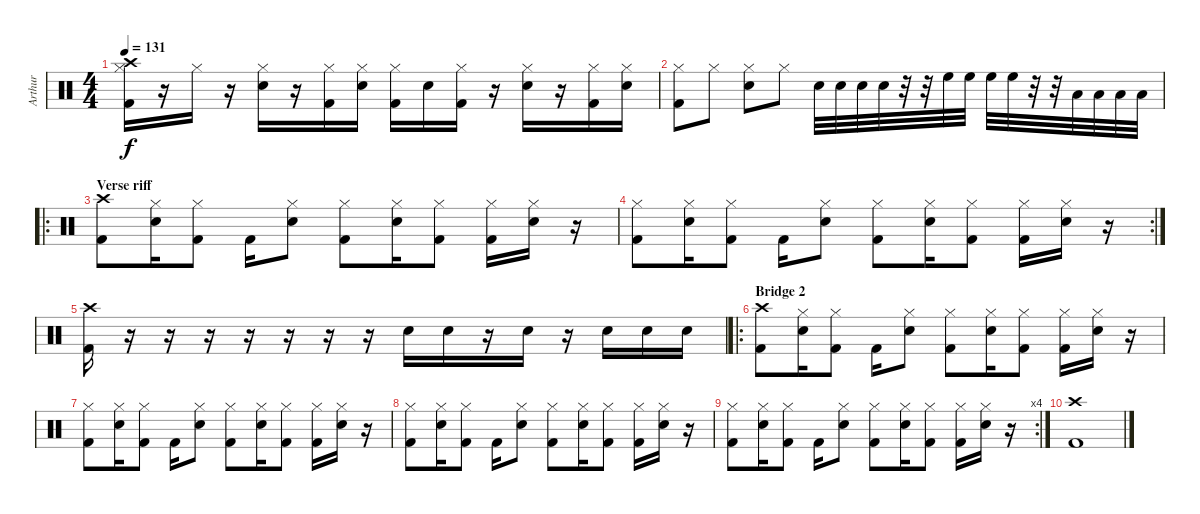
\track ("Arthur" "Arthur") {instrument percussion}
\staff {score}
\articulation defaults
\ts (4 4)
\tempo 131
\clef neutral
\ks c
("Hi-Hat (closed)" "Kick (hit) 2" "Crash high (hit)").16{dy f} r.16 "Hi-Hat (closed)".16 r.16 ("Hi-Hat (closed)" "Snare (hit) 2").16 r.16 ("Hi-Hat (closed)" "Kick (hit) 2").16 ("Hi-Hat (closed)" "Snare (hit) 2").16 ("Hi-Hat (closed)" "Kick (hit) 2").16 "Snare (hit) 2".16 ("Hi-Hat (closed)" "Kick (hit) 2").16 r.16 ("Hi-Hat (closed)" "Snare (hit) 2").16 r.16 ("Hi-Hat (closed)" "Kick (hit) 2").16 ("Hi-Hat (closed)" "Snare (hit) 2").16 |
("Hi-Hat (closed)" "Kick (hit) 2").8 "Hi-Hat (closed)".8 ("Hi-Hat (closed)" "Snare (hit) 2").8 "Hi-Hat (closed)".8 "Snare (hit) 2".32 "Snare (hit) 2".32 "Snare (hit) 2".32 "Snare (hit) 2".32 r.32 r.32 "High Floor Tom (hit)".32 "High Floor Tom (hit)".32 "High Floor Tom (hit)".32 "High Floor Tom (hit)".32 r.32 r.32 "Low Tom (hit)".32 "Low Tom (hit)".32 "Low Tom (hit)".32 "Low Tom (hit)".32 |
\ro
\section ("" "Verse riff")
("Crash high (hit)" "Kick (hit) 2").8 ("Hi-Hat (closed)" "Snare (hit) 2").16 ("Hi-Hat (closed)" "Kick (hit) 2").8 "Kick (hit) 2".16 ("Hi-Hat (closed)" "Snare (hit) 2").8 ("Hi-Hat (closed)" "Kick (hit) 2").8 ("Hi-Hat (closed)" "Snare (hit) 2").16 ("Hi-Hat (closed)" "Kick (hit) 2").8 ("Hi-Hat (closed)" "Kick (hit) 2").16 ("Hi-Hat (closed)" "Snare (hit) 2").16 r.16 |
\rc 2
("Hi-Hat (closed)" "Kick (hit) 2").8 ("Hi-Hat (closed)" "Snare (hit) 2").16 ("Hi-Hat (closed)" "Kick (hit) 2").8 "Kick (hit) 2".16 ("Hi-Hat (closed)" "Snare (hit) 2").8 ("Hi-Hat (closed)" "Kick (hit) 2").8 ("Hi-Hat (closed)" "Snare (hit) 2").16 ("Hi-Hat (closed)" "Kick (hit) 2").8 ("Hi-Hat (closed)" "Kick (hit) 2").16 ("Hi-Hat (closed)" "Snare (hit) 2").16 r.16 |
("Crash high (hit)" "Kick (hit) 2").16 r.16 r.16 r.16 r.16 r.16 r.16 r.16 "Snare (hit) 2".16 "Snare (hit) 2".16 r.16 "Snare (hit) 2".16 r.16 "Snare (hit) 2".16 "Snare (hit) 2".16 "Snare (hit) 2".16 |
\ro
\section ("" "Bridge 2")
("Crash high (hit)" "Kick (hit) 2").8 ("Hi-Hat (closed)" "Snare (hit) 2").16 ("Hi-Hat (closed)" "Kick (hit) 2").8 "Kick (hit) 2".16 ("Hi-Hat (closed)" "Snare (hit) 2").8 ("Hi-Hat (closed)" "Kick (hit) 2").8 ("Hi-Hat (closed)" "Snare (hit) 2").16 ("Hi-Hat (closed)" "Kick (hit) 2").8 ("Hi-Hat (closed)" "Kick (hit) 2").16 ("Hi-Hat (closed)" "Snare (hit) 2").16 r.16 |
("Hi-Hat (closed)" "Kick (hit) 2").8 ("Hi-Hat (closed)" "Snare (hit) 2").16 ("Hi-Hat (closed)" "Kick (hit) 2").8 "Kick (hit) 2".16 ("Hi-Hat (closed)" "Snare (hit) 2").8 ("Hi-Hat (closed)" "Kick (hit) 2").8 ("Hi-Hat (closed)" "Snare (hit) 2").16 ("Hi-Hat (closed)" "Kick (hit) 2").8 ("Hi-Hat (closed)" "Kick (hit) 2").16 ("Hi-Hat (closed)" "Snare (hit) 2").16 r.16 |
("Hi-Hat (closed)" "Kick (hit) 2").8 ("Hi-Hat (closed)" "Snare (hit) 2").16 ("Hi-Hat (closed)" "Kick (hit) 2").8 "Kick (hit) 2".16 ("Hi-Hat (closed)" "Snare (hit) 2").8 ("Hi-Hat (closed)" "Kick (hit) 2").8 ("Hi-Hat (closed)" "Snare (hit) 2").16 ("Hi-Hat (closed)" "Kick (hit) 2").8 ("Hi-Hat (closed)" "Kick (hit) 2").16 ("Hi-Hat (closed)" "Snare (hit) 2").16 r.16 |
\rc 4
("Hi-Hat (closed)" "Kick (hit) 2").8 ("Hi-Hat (closed)" "Snare (hit) 2").16 ("Hi-Hat (closed)" "Kick (hit) 2").8 "Kick (hit) 2".16 ("Hi-Hat (closed)" "Snare (hit) 2").8 ("Hi-Hat (closed)" "Kick (hit) 2").8 ("Hi-Hat (closed)" "Snare (hit) 2").16 ("Hi-Hat (closed)" "Kick (hit) 2").8 ("Hi-Hat (closed)" "Kick (hit) 2").16 ("Hi-Hat (closed)" "Snare (hit) 2").16 r.16 |
("Crash high (hit)" "Kick (hit) 2").1
